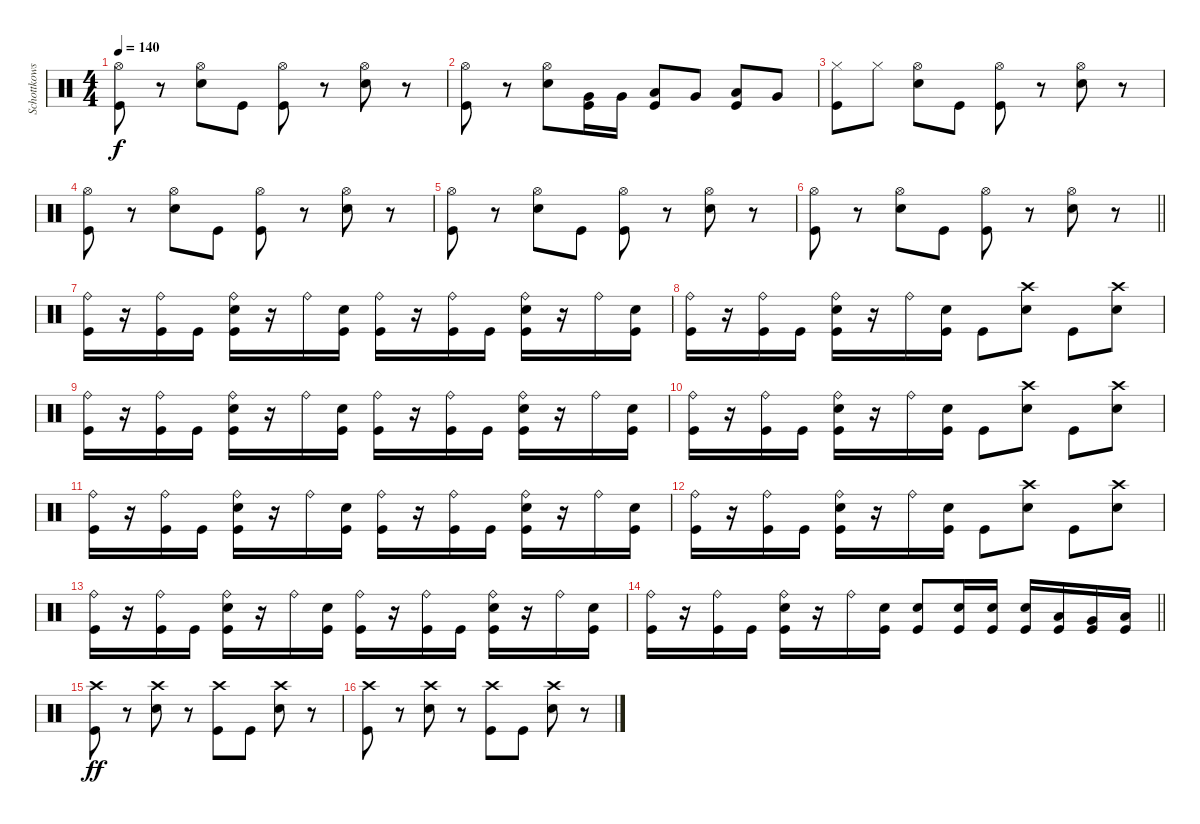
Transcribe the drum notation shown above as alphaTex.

\track ("Schottkowski" "Schottkows") {instrument percussion}
\staff {score}
\articulation defaults
\ts (4 4)
\tempo 140
\clef neutral
\ks c
("Hi-Hat (open)" "Kick (hit)").8{dy f} r.8 ("Hi-Hat (open)" "Snare (hit) 2").8 "Kick (hit)".8 ("Hi-Hat (open)" "Kick (hit)").8 r.8 ("Hi-Hat (open)" "Snare (hit) 2").8 r.8 |
("Hi-Hat (open)" "Kick (hit)").8 r.8 ("Hi-Hat (open)" "Snare (hit) 2").8 ("Very Low Tom (hit)" "Kick (hit)").16 "Very Low Tom (hit)".16 ("Low Tom (hit)" "Kick (hit)").8 "Very Low Tom (hit)".8 ("Low Floor Tom (hit)" "Kick (hit)").8 "Very Low Tom (hit)".8 |
("Hi-Hat (closed)" "Kick (hit)").8 "Hi-Hat (closed)".8 ("Hi-Hat (open)" "Snare (hit) 2").8 "Kick (hit)".8 ("Hi-Hat (open)" "Kick (hit)").8 r.8 ("Hi-Hat (open)" "Snare (hit) 2").8 r.8 |
("Hi-Hat (open)" "Kick (hit)").8 r.8 ("Hi-Hat (open)" "Snare (hit) 2").8 "Kick (hit)".8 ("Hi-Hat (open)" "Kick (hit)").8 r.8 ("Hi-Hat (open)" "Snare (hit) 2").8 r.8 |
("Hi-Hat (open)" "Kick (hit)").8 r.8 ("Hi-Hat (open)" "Snare (hit) 2").8 "Kick (hit)".8 ("Hi-Hat (open)" "Kick (hit)").8 r.8 ("Hi-Hat (open)" "Snare (hit) 2").8 r.8 |
\barLineRight lightlight
("Hi-Hat (open)" "Kick (hit)").8 r.8 ("Hi-Hat (open)" "Snare (hit) 2").8 "Kick (hit)".8 ("Hi-Hat (open)" "Kick (hit)").8 r.8 ("Hi-Hat (open)" "Snare (hit) 2").8 r.8 |
\section ("" "")
("Ride (bell)" "Kick (hit)").16 r.16 ("Ride (bell)" "Kick (hit)").16 "Kick (hit)".16 ("Ride (bell)" "Snare (hit) 2" "Kick (hit)").16 r.16 "Ride (bell)".16 ("Snare (hit) 2" "Kick (hit)").16 ("Ride (bell)" "Kick (hit)").16 r.16 ("Ride (bell)" "Kick (hit)").16 "Kick (hit)".16 ("Ride (bell)" "Snare (hit) 2" "Kick (hit)").16 r.16 "Ride (bell)".16 ("Snare (hit) 2" "Kick (hit)").16 |
("Ride (bell)" "Kick (hit)").16 r.16 ("Ride (bell)" "Kick (hit)").16 "Kick (hit)".16 ("Ride (bell)" "Snare (hit) 2" "Kick (hit)").16 r.16 "Ride (bell)".16 ("Snare (hit) 2" "Kick (hit)").16 "Kick (hit)".8 ("Crash high (hit)" "Snare (hit) 2").8 "Kick (hit)".8 ("Crash high (hit)" "Snare (hit) 2").8 |
("Ride (bell)" "Kick (hit)").16 r.16 ("Ride (bell)" "Kick (hit)").16 "Kick (hit)".16 ("Ride (bell)" "Snare (hit) 2" "Kick (hit)").16 r.16 "Ride (bell)".16 ("Snare (hit) 2" "Kick (hit)").16 ("Ride (bell)" "Kick (hit)").16 r.16 ("Ride (bell)" "Kick (hit)").16 "Kick (hit)".16 ("Ride (bell)" "Snare (hit) 2" "Kick (hit)").16 r.16 "Ride (bell)".16 ("Snare (hit) 2" "Kick (hit)").16 |
("Ride (bell)" "Kick (hit)").16 r.16 ("Ride (bell)" "Kick (hit)").16 "Kick (hit)".16 ("Ride (bell)" "Snare (hit) 2" "Kick (hit)").16 r.16 "Ride (bell)".16 ("Snare (hit) 2" "Kick (hit)").16 "Kick (hit)".8 ("Crash high (hit)" "Snare (hit) 2").8 "Kick (hit)".8 ("Crash high (hit)" "Snare (hit) 2").8 |
("Ride (bell)" "Kick (hit)").16 r.16 ("Ride (bell)" "Kick (hit)").16 "Kick (hit)".16 ("Ride (bell)" "Snare (hit) 2" "Kick (hit)").16 r.16 "Ride (bell)".16 ("Snare (hit) 2" "Kick (hit)").16 ("Ride (bell)" "Kick (hit)").16 r.16 ("Ride (bell)" "Kick (hit)").16 "Kick (hit)".16 ("Ride (bell)" "Snare (hit) 2" "Kick (hit)").16 r.16 "Ride (bell)".16 ("Snare (hit) 2" "Kick (hit)").16 |
("Ride (bell)" "Kick (hit)").16 r.16 ("Ride (bell)" "Kick (hit)").16 "Kick (hit)".16 ("Ride (bell)" "Snare (hit) 2" "Kick (hit)").16 r.16 "Ride (bell)".16 ("Snare (hit) 2" "Kick (hit)").16 "Kick (hit)".8 ("Crash high (hit)" "Snare (hit) 2").8 "Kick (hit)".8 ("Crash high (hit)" "Snare (hit) 2").8 |
("Ride (bell)" "Kick (hit)").16 r.16 ("Ride (bell)" "Kick (hit)").16 "Kick (hit)".16 ("Ride (bell)" "Snare (hit) 2" "Kick (hit)").16 r.16 "Ride (bell)".16 ("Snare (hit) 2" "Kick (hit)").16 ("Ride (bell)" "Kick (hit)").16 r.16 ("Ride (bell)" "Kick (hit)").16 "Kick (hit)".16 ("Ride (bell)" "Snare (hit) 2" "Kick (hit)").16 r.16 "Ride (bell)".16 ("Snare (hit) 2" "Kick (hit)").16 |
\barLineRight lightlight
("Ride (bell)" "Kick (hit)").16 r.16 ("Ride (bell)" "Kick (hit)").16 "Kick (hit)".16 ("Ride (bell)" "Snare (hit) 2" "Kick (hit)").16 r.16 "Ride (bell)".16 ("Snare (hit) 2" "Kick (hit)").16 ("Snare (hit) 2" "Kick (hit)").8 ("Snare (hit) 2" "Kick (hit)").16 ("Snare (hit) 2" "Kick (hit)").16 ("Snare (hit) 2" "Kick (hit)").16 ("Low Tom (hit)" "Kick (hit)").16 ("Very Low Tom (hit)" "Kick (hit)").16 ("Low Floor Tom (hit)" "Kick (hit)").16 |
\section ("" "")
("Crash high (hit)" "Kick (hit)").8{dy ff} r.8 ("Crash high (hit)" "Snare (hit) 2").8 r.8 ("Crash high (hit)" "Kick (hit)").8 "Kick (hit)".8 ("Crash high (hit)" "Snare (hit) 2").8 r.8 |
("Crash high (hit)" "Kick (hit)").8 r.8 ("Crash high (hit)" "Snare (hit) 2").8 r.8 ("Crash high (hit)" "Kick (hit)").8 "Kick (hit)".8 ("Crash high (hit)" "Snare (hit) 2").8 r.8
